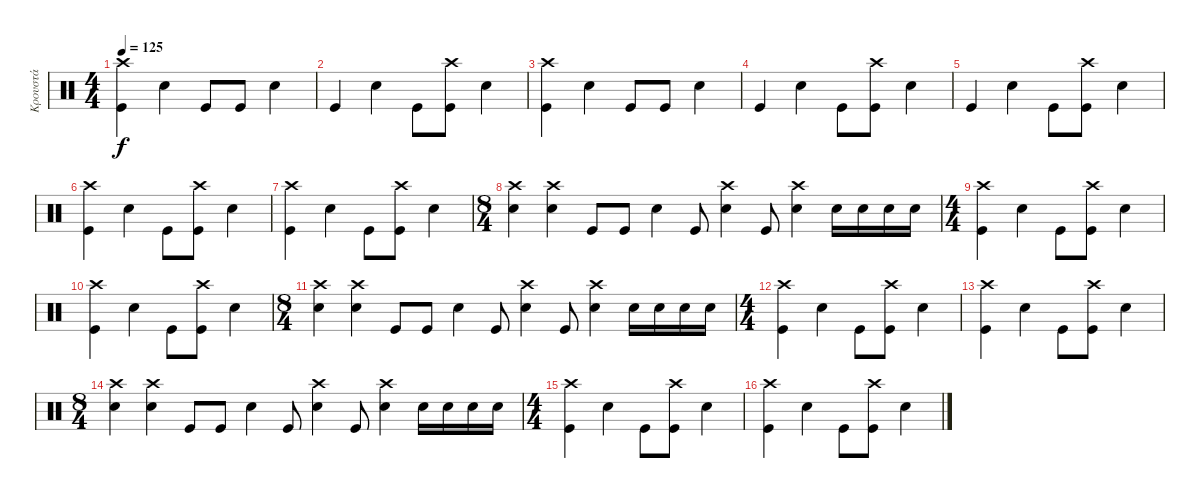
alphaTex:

\track ("Κρουστά" "Κρουστά") {instrument percussion}
\staff {score}
\articulation defaults
\ts (4 4)
\tempo 125
\clef neutral
\ks c
("Crash high (hit)" "Kick (hit)").4{dy f} "Electric Snare (hit)".4 "Kick (hit)".8 "Kick (hit)".8 "Electric Snare (hit)".4 |
"Kick (hit)".4 "Electric Snare (hit)".4 "Kick (hit)".8 ("Crash high (hit)" "Kick (hit)").8 "Electric Snare (hit)".4 |
("Crash high (hit)" "Kick (hit)").4 "Electric Snare (hit)".4 "Kick (hit)".8 "Kick (hit)".8 "Electric Snare (hit)".4 |
"Kick (hit)".4 "Electric Snare (hit)".4 "Kick (hit)".8 ("Crash high (hit)" "Kick (hit)").8 "Electric Snare (hit)".4 |
"Kick (hit)".4 "Electric Snare (hit)".4 "Kick (hit)".8 ("Crash high (hit)" "Kick (hit)").8 "Electric Snare (hit)".4 |
("Crash high (hit)" "Kick (hit)").4 "Electric Snare (hit)".4 "Kick (hit)".8 ("Crash high (hit)" "Kick (hit)").8 "Electric Snare (hit)".4 |
("Crash high (hit)" "Kick (hit)").4 "Electric Snare (hit)".4 "Kick (hit)".8 ("Crash high (hit)" "Kick (hit)").8 "Electric Snare (hit)".4 |
\ts (8 4)
("Electric Snare (hit)" "Crash high (hit)").4 ("Crash high (hit)" "Electric Snare (hit)").4 "Kick (hit)".8 "Kick (hit)".8 "Electric Snare (hit)".4 "Kick (hit)".8 ("Crash high (hit)" "Electric Snare (hit)").4 "Kick (hit)".8 ("Crash high (hit)" "Electric Snare (hit)").4 "Electric Snare (hit)".16 "Electric Snare (hit)".16 "Electric Snare (hit)".16 "Electric Snare (hit)".16 |
\ts (4 4)
("Crash high (hit)" "Kick (hit)").4 "Electric Snare (hit)".4 "Kick (hit)".8 ("Crash high (hit)" "Kick (hit)").8 "Electric Snare (hit)".4 |
("Crash high (hit)" "Kick (hit)").4 "Electric Snare (hit)".4 "Kick (hit)".8 ("Crash high (hit)" "Kick (hit)").8 "Electric Snare (hit)".4 |
\ts (8 4)
("Electric Snare (hit)" "Crash high (hit)").4 ("Crash high (hit)" "Electric Snare (hit)").4 "Kick (hit)".8 "Kick (hit)".8 "Electric Snare (hit)".4 "Kick (hit)".8 ("Crash high (hit)" "Electric Snare (hit)").4 "Kick (hit)".8 ("Crash high (hit)" "Electric Snare (hit)").4 "Electric Snare (hit)".16 "Electric Snare (hit)".16 "Electric Snare (hit)".16 "Electric Snare (hit)".16 |
\ts (4 4)
("Crash high (hit)" "Kick (hit)").4 "Electric Snare (hit)".4 "Kick (hit)".8 ("Crash high (hit)" "Kick (hit)").8 "Electric Snare (hit)".4 |
("Crash high (hit)" "Kick (hit)").4 "Electric Snare (hit)".4 "Kick (hit)".8 ("Crash high (hit)" "Kick (hit)").8 "Electric Snare (hit)".4 |
\ts (8 4)
("Electric Snare (hit)" "Crash high (hit)").4 ("Crash high (hit)" "Electric Snare (hit)").4 "Kick (hit)".8 "Kick (hit)".8 "Electric Snare (hit)".4 "Kick (hit)".8 ("Crash high (hit)" "Electric Snare (hit)").4 "Kick (hit)".8 ("Crash high (hit)" "Electric Snare (hit)").4 "Electric Snare (hit)".16 "Electric Snare (hit)".16 "Electric Snare (hit)".16 "Electric Snare (hit)".16 |
\ts (4 4)
("Crash high (hit)" "Kick (hit)").4 "Electric Snare (hit)".4 "Kick (hit)".8 ("Crash high (hit)" "Kick (hit)").8 "Electric Snare (hit)".4 |
("Crash high (hit)" "Kick (hit)").4 "Electric Snare (hit)".4 "Kick (hit)".8 ("Crash high (hit)" "Kick (hit)").8 "Electric Snare (hit)".4
